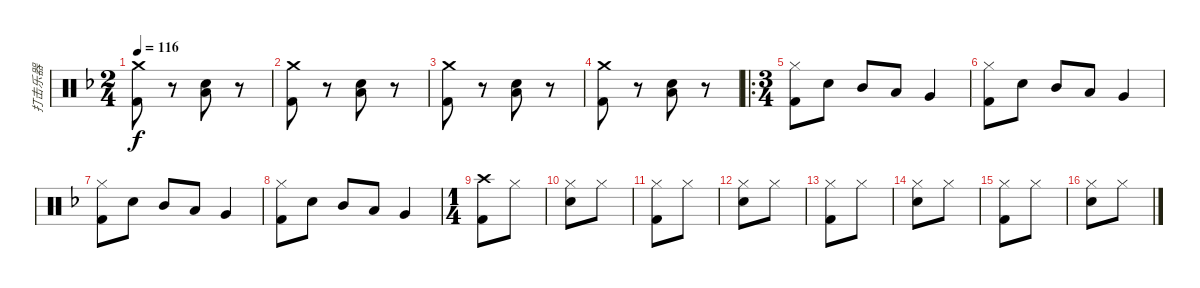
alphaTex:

\track ("打击乐器" "打击乐器") {instrument percussion}
\staff {score}
\articulation defaults
\ts (2 4)
\tempo 116
\clef neutral
\ks f
("Crash medium (hit)" "Kick (hit) 2").8{dy f} r.8 ("Low Floor Tom (hit)" "Snare (hit) 2").8 r.8 |
("Crash medium (hit)" "Kick (hit) 2").8 r.8 ("Low Tom (hit)" "Snare (hit) 2").8 r.8 |
("Crash medium (hit)" "Kick (hit) 2").8 r.8 ("Low Floor Tom (hit)" "Snare (hit) 2").8 r.8 |
("Crash medium (hit)" "Kick (hit) 2").8 r.8 ("Low Tom (hit)" "Snare (hit) 2").8 r.8 |
\ro
\ts (3 4)
("Hi-Hat (closed)" "Kick (hit) 2").8 "Snare (hit) 2".8 "Mid Tom (hit)".8 "Low Tom (hit)".8 "Very Low Tom (hit)".4 |
("Hi-Hat (closed)" "Kick (hit) 2").8 "Snare (hit) 2".8 "Mid Tom (hit)".8 "Low Tom (hit)".8 "Very Low Tom (hit)".4 |
("Hi-Hat (closed)" "Kick (hit) 2").8 "Snare (hit) 2".8 "Mid Tom (hit)".8 "Low Tom (hit)".8 "Very Low Tom (hit)".4 |
("Hi-Hat (closed)" "Kick (hit) 2").8 "Snare (hit) 2".8 "Mid Tom (hit)".8 "Low Tom (hit)".8 "Very Low Tom (hit)".4 |
\ts (1 4)
("Crash high (hit)" "Kick (hit) 2").8 "Hi-Hat (closed)".8 |
("Hi-Hat (closed)" "Snare (hit) 2").8 "Hi-Hat (closed)".8 |
("Hi-Hat (closed)" "Kick (hit) 2").8 "Hi-Hat (closed)".8 |
("Hi-Hat (closed)" "Snare (hit) 2").8 "Hi-Hat (closed)".8 |
("Hi-Hat (closed)" "Kick (hit) 2").8 "Hi-Hat (closed)".8 |
("Hi-Hat (closed)" "Snare (hit) 2").8 "Hi-Hat (closed)".8 |
("Hi-Hat (closed)" "Kick (hit) 2").8 "Hi-Hat (closed)".8 |
("Hi-Hat (closed)" "Snare (hit) 2").8 "Hi-Hat (closed)".8
